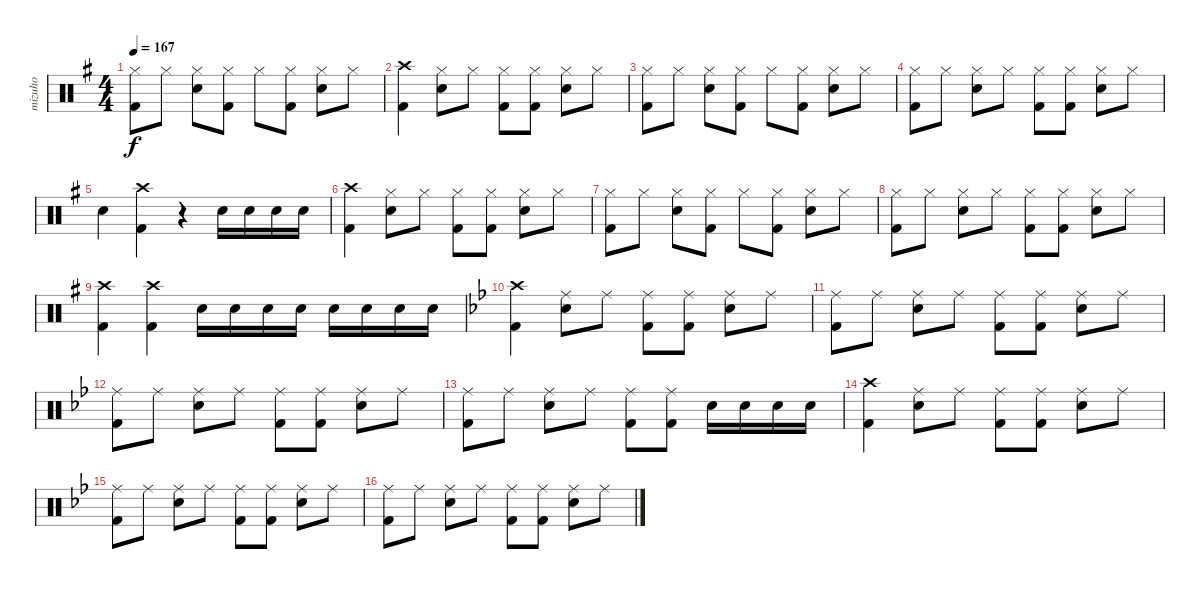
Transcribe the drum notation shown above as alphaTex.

\track ("mizuho" "mizuho") {instrument percussion}
\staff {score}
\articulation defaults
\ts (4 4)
\tempo 167
\clef neutral
\ks eminor
("Hi-Hat (closed)" "Kick (hit) 2").8{dy f} "Hi-Hat (closed)".8 ("Hi-Hat (closed)" "Electric Snare (hit)").8 ("Hi-Hat (closed)" "Kick (hit) 2").8 "Hi-Hat (closed)".8 ("Hi-Hat (closed)" "Kick (hit) 2").8 ("Hi-Hat (closed)" "Electric Snare (hit)").8 "Hi-Hat (closed)".8 |
("Crash high (hit)" "Kick (hit) 2").4 ("Hi-Hat (closed)" "Electric Snare (hit)").8 "Hi-Hat (closed)".8 ("Hi-Hat (closed)" "Kick (hit) 2").8 ("Hi-Hat (closed)" "Kick (hit) 2").8 ("Hi-Hat (closed)" "Electric Snare (hit)").8 "Hi-Hat (closed)".8 |
("Hi-Hat (closed)" "Kick (hit) 2").8 "Hi-Hat (closed)".8 ("Hi-Hat (closed)" "Electric Snare (hit)").8 ("Hi-Hat (closed)" "Kick (hit) 2").8 "Hi-Hat (closed)".8 ("Hi-Hat (closed)" "Kick (hit) 2").8 ("Hi-Hat (closed)" "Electric Snare (hit)").8 "Hi-Hat (closed)".8 |
("Hi-Hat (closed)" "Kick (hit) 2").8 "Hi-Hat (closed)".8 ("Hi-Hat (closed)" "Electric Snare (hit)").8 "Hi-Hat (closed)".8 ("Hi-Hat (closed)" "Kick (hit) 2").8 ("Hi-Hat (closed)" "Kick (hit) 2").8 ("Hi-Hat (closed)" "Electric Snare (hit)").8 "Hi-Hat (closed)".8 |
"Snare (hit) 2".4 ("Crash high (hit)" "Kick (hit) 2").4 r.4 "Snare (hit) 2".16 "Snare (hit) 2".16 "Snare (hit) 2".16 "Snare (hit) 2".16 |
("Crash high (hit)" "Kick (hit) 2").4 ("Hi-Hat (closed)" "Electric Snare (hit)").8 "Hi-Hat (closed)".8 ("Hi-Hat (closed)" "Kick (hit) 2").8 ("Hi-Hat (closed)" "Kick (hit) 2").8 ("Hi-Hat (closed)" "Electric Snare (hit)").8 "Hi-Hat (closed)".8 |
("Hi-Hat (closed)" "Kick (hit) 2").8 "Hi-Hat (closed)".8 ("Hi-Hat (closed)" "Electric Snare (hit)").8 ("Hi-Hat (closed)" "Kick (hit) 2").8 "Hi-Hat (closed)".8 ("Hi-Hat (closed)" "Kick (hit) 2").8 ("Hi-Hat (closed)" "Electric Snare (hit)").8 "Hi-Hat (closed)".8 |
("Hi-Hat (closed)" "Kick (hit) 2").8 "Hi-Hat (closed)".8 ("Hi-Hat (closed)" "Electric Snare (hit)").8 "Hi-Hat (closed)".8 ("Hi-Hat (closed)" "Kick (hit) 2").8 ("Hi-Hat (closed)" "Kick (hit) 2").8 ("Hi-Hat (closed)" "Electric Snare (hit)").8 "Hi-Hat (closed)".8 |
("Crash high (hit)" "Kick (hit) 2").4 ("Crash high (hit)" "Kick (hit) 2").4 "Snare (hit) 2".16 "Snare (hit) 2".16 "Snare (hit) 2".16 "Snare (hit) 2".16 "Snare (hit) 2".16 "Snare (hit) 2".16 "Snare (hit) 2".16 "Snare (hit) 2".16 |
\ks gminor
("Crash high (hit)" "Kick (hit) 2").4 ("Ride (middle)" "Electric Snare (hit)").8 "Ride (middle)".8 ("Ride (middle)" "Kick (hit) 2").8 ("Ride (middle)" "Kick (hit) 2").8 ("Ride (middle)" "Electric Snare (hit)").8 "Ride (middle)".8 |
("Ride (middle)" "Kick (hit) 2").8 "Ride (middle)".8 ("Ride (middle)" "Electric Snare (hit)").8 "Ride (middle)".8 ("Ride (middle)" "Kick (hit) 2").8 ("Ride (middle)" "Kick (hit) 2").8 ("Ride (middle)" "Electric Snare (hit)").8 "Ride (middle)".8 |
("Ride (middle)" "Kick (hit) 2").8 "Ride (middle)".8 ("Ride (middle)" "Electric Snare (hit)").8 "Ride (middle)".8 ("Ride (middle)" "Kick (hit) 2").8 ("Ride (middle)" "Kick (hit) 2").8 ("Ride (middle)" "Electric Snare (hit)").8 "Ride (middle)".8 |
("Ride (middle)" "Kick (hit) 2").8 "Ride (middle)".8 ("Ride (middle)" "Electric Snare (hit)").8 "Ride (middle)".8 ("Ride (middle)" "Kick (hit) 2").8 ("Ride (middle)" "Kick (hit) 2").8 "Snare (hit) 2".16 "Snare (hit) 2".16 "Snare (hit) 2".16 "Snare (hit) 2".16 |
("Crash high (hit)" "Kick (hit) 2").4 ("Ride (middle)" "Electric Snare (hit)").8 "Ride (middle)".8 ("Ride (middle)" "Kick (hit) 2").8 ("Ride (middle)" "Kick (hit) 2").8 ("Ride (middle)" "Electric Snare (hit)").8 "Ride (middle)".8 |
("Ride (middle)" "Kick (hit) 2").8 "Ride (middle)".8 ("Ride (middle)" "Electric Snare (hit)").8 "Ride (middle)".8 ("Ride (middle)" "Kick (hit) 2").8 ("Ride (middle)" "Kick (hit) 2").8 ("Ride (middle)" "Electric Snare (hit)").8 "Ride (middle)".8 |
("Ride (middle)" "Kick (hit) 2").8 "Ride (middle)".8 ("Ride (middle)" "Electric Snare (hit)").8 "Ride (middle)".8 ("Ride (middle)" "Kick (hit) 2").8 ("Ride (middle)" "Kick (hit) 2").8 ("Ride (middle)" "Electric Snare (hit)").8 "Ride (middle)".8
